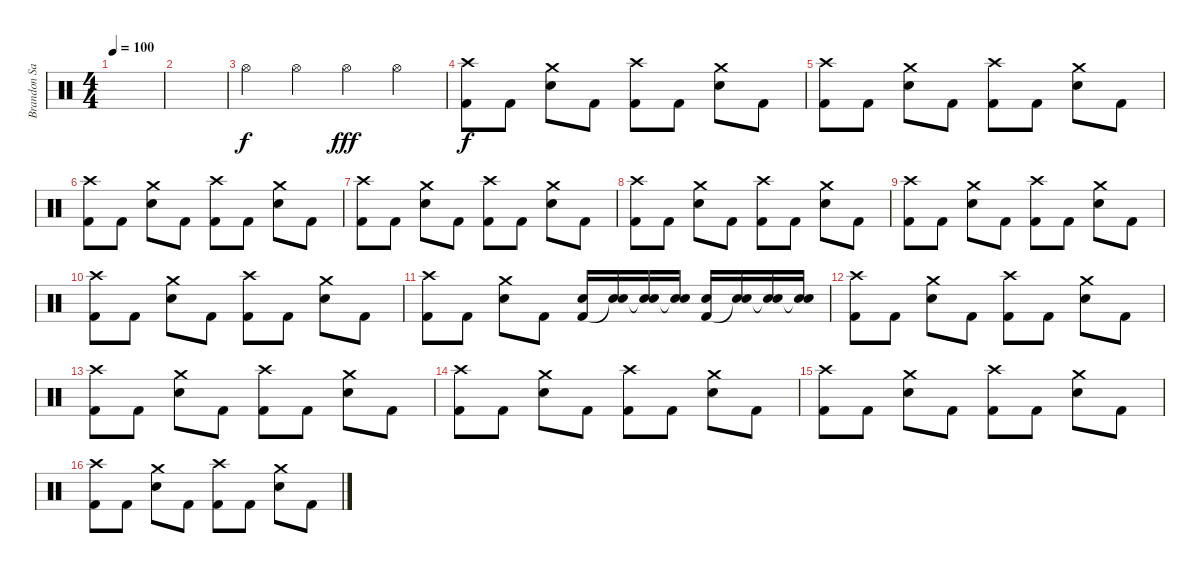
\track ("Brandon Saller" "Brandon Sa") {instrument percussion}
\staff {score}
\articulation defaults
\ts (4 4)
\tempo 100
\tempo 161
\tempo 100
\clef neutral
\ks c
|
|
"Hi-Hat (open)".4 "Hi-Hat (open)".4 "Hi-Hat (open)".4{dy fff} "Hi-Hat (open)".4 |
("Crash high (hit)" "Kick (hit) 2").8{dy f} "Kick (hit) 2".8 ("Crash medium (hit)" "Electric Snare (hit)").8 "Kick (hit) 2".8 ("Crash high (hit)" "Kick (hit) 2").8 "Kick (hit) 2".8 ("Crash medium (hit)" "Electric Snare (hit)").8 "Kick (hit) 2".8 |
("Crash high (hit)" "Kick (hit) 2").8 "Kick (hit) 2".8 ("Crash medium (hit)" "Electric Snare (hit)").8 "Kick (hit) 2".8 ("Crash high (hit)" "Kick (hit) 2").8 "Kick (hit) 2".8 ("Crash medium (hit)" "Electric Snare (hit)").8 "Kick (hit) 2".8 |
("Crash high (hit)" "Kick (hit) 2").8 "Kick (hit) 2".8 ("Crash medium (hit)" "Electric Snare (hit)").8 "Kick (hit) 2".8 ("Crash high (hit)" "Kick (hit) 2").8 "Kick (hit) 2".8 ("Crash medium (hit)" "Electric Snare (hit)").8 "Kick (hit) 2".8 |
("Crash high (hit)" "Kick (hit) 2").8 "Kick (hit) 2".8 ("Crash medium (hit)" "Electric Snare (hit)").8 "Kick (hit) 2".8 ("Crash high (hit)" "Kick (hit) 2").8 "Kick (hit) 2".8 ("Crash medium (hit)" "Electric Snare (hit)").8 "Kick (hit) 2".8 |
("Crash high (hit)" "Kick (hit) 2").8 "Kick (hit) 2".8 ("Crash medium (hit)" "Electric Snare (hit)").8 "Kick (hit) 2".8 ("Crash high (hit)" "Kick (hit) 2").8 "Kick (hit) 2".8 ("Crash medium (hit)" "Electric Snare (hit)").8 "Kick (hit) 2".8 |
("Crash high (hit)" "Kick (hit) 2").8 "Kick (hit) 2".8 ("Crash medium (hit)" "Electric Snare (hit)").8 "Kick (hit) 2".8 ("Crash high (hit)" "Kick (hit) 2").8 "Kick (hit) 2".8 ("Crash medium (hit)" "Electric Snare (hit)").8 "Kick (hit) 2".8 |
("Crash high (hit)" "Kick (hit) 2").8 "Kick (hit) 2".8 ("Crash medium (hit)" "Electric Snare (hit)").8 "Kick (hit) 2".8 ("Crash high (hit)" "Kick (hit) 2").8 "Kick (hit) 2".8 ("Crash medium (hit)" "Electric Snare (hit)").8 "Kick (hit) 2".8 |
("Crash high (hit)" "Kick (hit) 2").8 "Kick (hit) 2".8 ("Crash medium (hit)" "Electric Snare (hit)").8 "Kick (hit) 2".8 ("Snare (hit) 2" "Kick (hit) 2").16 ("Snare (hit) 2" "Snare (hit)"{t}).16 ("Snare (hit) 2" "Snare (hit)"{t}).16 ("Snare (hit) 2" "Snare (hit)"{t}).16 ("Snare (hit) 2" "Kick (hit) 2").16 ("Snare (hit) 2" "Snare (hit)"{t}).16 ("Snare (hit) 2" "Snare (hit)"{t}).16 ("Snare (hit) 2" "Snare (hit)"{t}).16 |
("Crash high (hit)" "Kick (hit) 2").8 "Kick (hit) 2".8 ("Crash medium (hit)" "Electric Snare (hit)").8 "Kick (hit) 2".8 ("Crash high (hit)" "Kick (hit) 2").8 "Kick (hit) 2".8 ("Crash medium (hit)" "Electric Snare (hit)").8 "Kick (hit) 2".8 |
("Crash high (hit)" "Kick (hit) 2").8 "Kick (hit) 2".8 ("Crash medium (hit)" "Electric Snare (hit)").8 "Kick (hit) 2".8 ("Crash high (hit)" "Kick (hit) 2").8 "Kick (hit) 2".8 ("Crash medium (hit)" "Electric Snare (hit)").8 "Kick (hit) 2".8 |
("Crash high (hit)" "Kick (hit) 2").8 "Kick (hit) 2".8 ("Crash medium (hit)" "Electric Snare (hit)").8 "Kick (hit) 2".8 ("Crash high (hit)" "Kick (hit) 2").8 "Kick (hit) 2".8 ("Crash medium (hit)" "Electric Snare (hit)").8 "Kick (hit) 2".8 |
("Crash high (hit)" "Kick (hit) 2").8 "Kick (hit) 2".8 ("Crash medium (hit)" "Electric Snare (hit)").8 "Kick (hit) 2".8 ("Crash high (hit)" "Kick (hit) 2").8 "Kick (hit) 2".8 ("Crash medium (hit)" "Electric Snare (hit)").8 "Kick (hit) 2".8 |
("Crash high (hit)" "Kick (hit) 2").8 "Kick (hit) 2".8 ("Crash medium (hit)" "Electric Snare (hit)").8 "Kick (hit) 2".8 ("Crash high (hit)" "Kick (hit) 2").8 "Kick (hit) 2".8 ("Crash medium (hit)" "Electric Snare (hit)").8 "Kick (hit) 2".8
